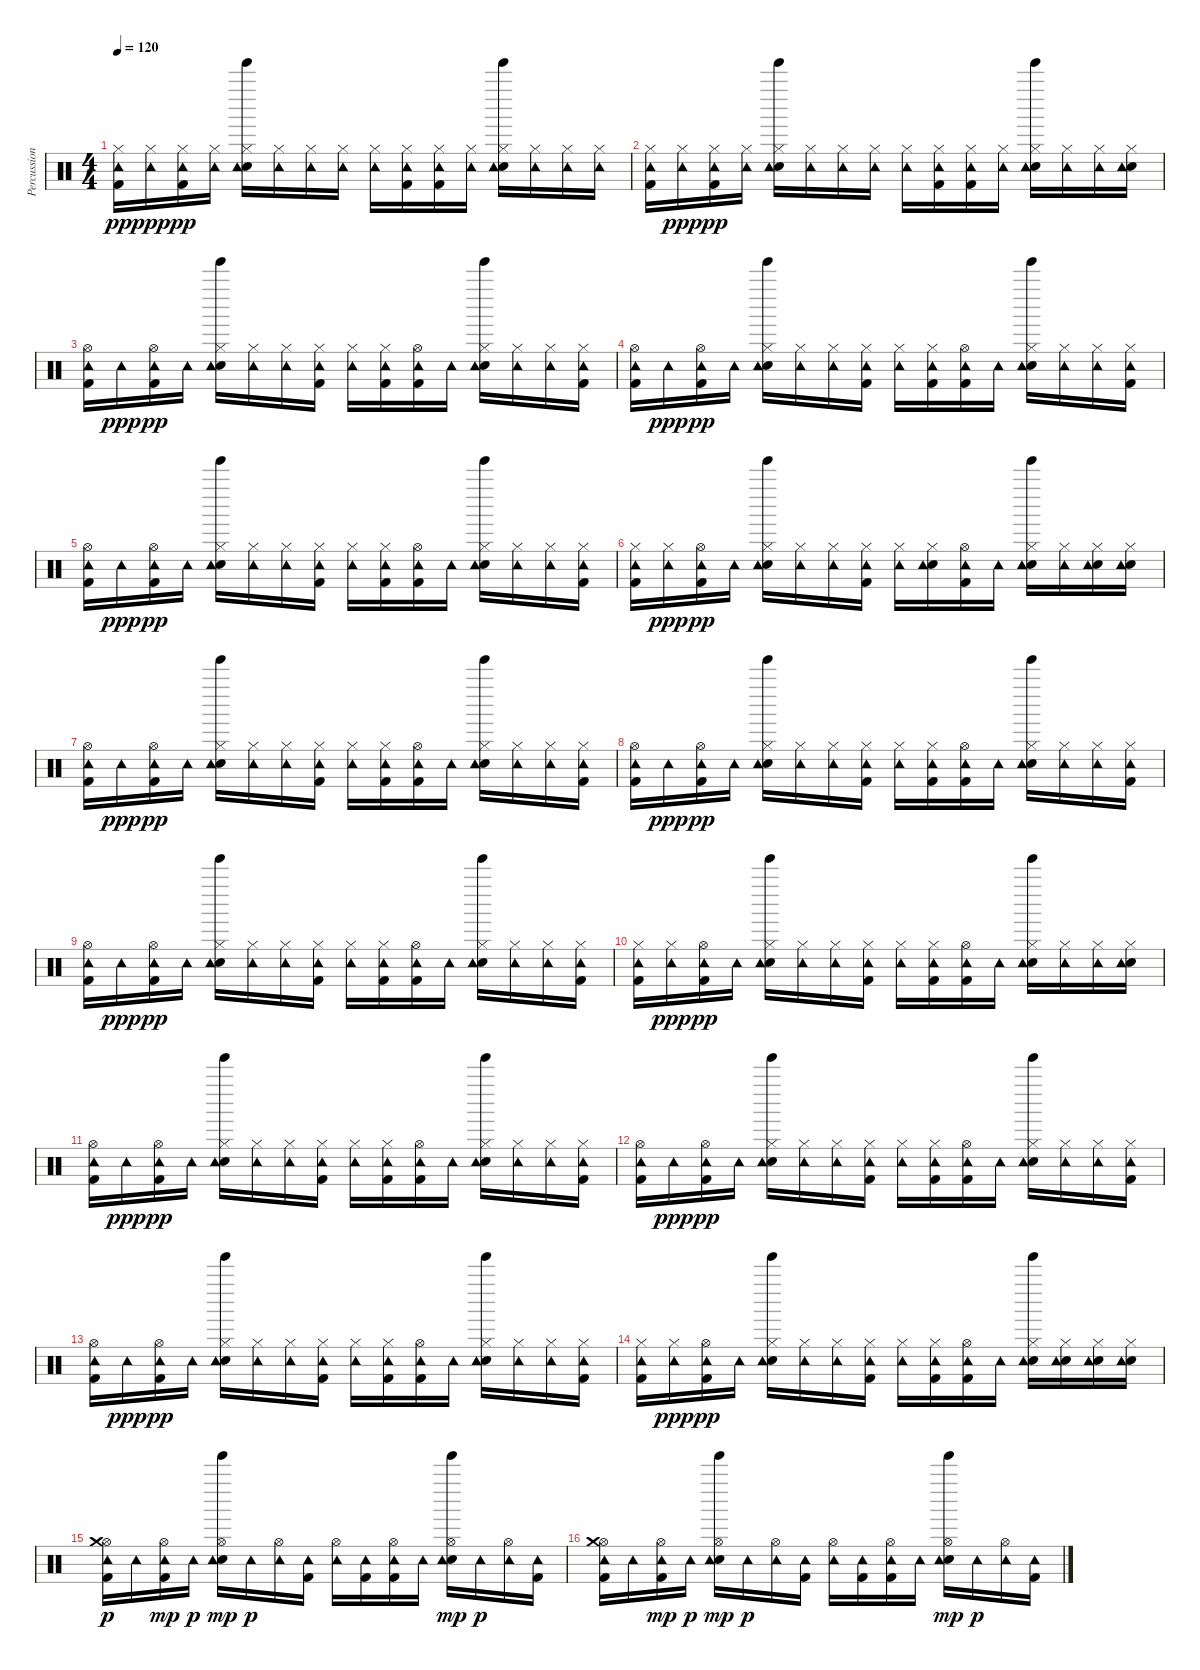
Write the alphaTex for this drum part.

\track ("Percussioni" "Percussion") {instrument percussion}
\staff {score}
\articulation defaults
\ts (4 4)
\tempo 120
\clef neutral
\ks c
("Kick (hit) 2" "Hi-Hat (closed)" "Tambourine (hit)").16{dy pp} ("Hi-Hat (closed)" "Tambourine (hit)").16{dy ppp} ("Kick (hit) 2" "Hi-Hat (closed)" "Tambourine (hit)").16{dy pp} ("Hi-Hat (closed)" "Tambourine (hit)").16 ("Electric Snare (hit)" "Hi-Hat (closed)" "Tambourine (hit)" "Tinkle Bell (hit)").16 ("Hi-Hat (closed)" "Tambourine (hit)").16 ("Hi-Hat (closed)" "Tambourine (hit)").16 ("Hi-Hat (closed)" "Tambourine (hit)").16 ("Hi-Hat (closed)" "Tambourine (hit)").16 ("Kick (hit) 2" "Hi-Hat (closed)" "Tambourine (hit)").16 ("Kick (hit) 2" "Hi-Hat (closed)" "Tambourine (hit)").16 ("Hi-Hat (closed)" "Tambourine (hit)").16 ("Electric Snare (hit)" "Hi-Hat (closed)" "Tambourine (hit)" "Tinkle Bell (hit)").16 ("Hi-Hat (closed)" "Tambourine (hit)").16 ("Hi-Hat (closed)" "Tambourine (hit)").16 ("Hi-Hat (closed)" "Tambourine (hit)").16 |
("Kick (hit) 2" "Hi-Hat (closed)" "Tambourine (hit)").16 ("Hi-Hat (closed)" "Tambourine (hit)").16{dy ppp} ("Kick (hit) 2" "Hi-Hat (closed)" "Tambourine (hit)").16{dy pp} ("Hi-Hat (closed)" "Tambourine (hit)").16 ("Electric Snare (hit)" "Hi-Hat (closed)" "Tambourine (hit)" "Tinkle Bell (hit)").16 ("Hi-Hat (closed)" "Tambourine (hit)").16 ("Hi-Hat (closed)" "Tambourine (hit)").16 ("Hi-Hat (closed)" "Tambourine (hit)").16 ("Hi-Hat (closed)" "Tambourine (hit)").16 ("Kick (hit) 2" "Hi-Hat (closed)" "Tambourine (hit)").16 ("Kick (hit) 2" "Hi-Hat (closed)" "Tambourine (hit)").16 ("Hi-Hat (closed)" "Tambourine (hit)").16 ("Electric Snare (hit)" "Hi-Hat (closed)" "Tambourine (hit)" "Tinkle Bell (hit)").16 ("Hi-Hat (closed)" "Tambourine (hit)").16 ("Hi-Hat (closed)" "Tambourine (hit)").16 ("Electric Snare (hit)" "Hi-Hat (closed)" "Tambourine (hit)").16 |
("Kick (hit) 2" "Hi-Hat (open)" "Tambourine (hit)").16 "Tambourine (hit)".16{dy ppp} ("Kick (hit) 2" "Hi-Hat (open)" "Tambourine (hit)").16{dy pp} "Tambourine (hit)".16 ("Electric Snare (hit)" "Hi-Hat (closed)" "Tambourine (hit)" "Tinkle Bell (hit)").16 ("Hi-Hat (closed)" "Tambourine (hit)").16 ("Hi-Hat (closed)" "Tambourine (hit)").16 ("Kick (hit) 2" "Hi-Hat (closed)" "Tambourine (hit)").16 ("Hi-Hat (closed)" "Tambourine (hit)").16 ("Kick (hit) 2" "Hi-Hat (closed)" "Tambourine (hit)").16 ("Kick (hit) 2" "Hi-Hat (open)" "Tambourine (hit)").16 "Tambourine (hit)".16 ("Electric Snare (hit)" "Hi-Hat (closed)" "Tambourine (hit)" "Tinkle Bell (hit)").16 ("Hi-Hat (closed)" "Tambourine (hit)").16 ("Hi-Hat (closed)" "Tambourine (hit)").16 ("Kick (hit) 2" "Hi-Hat (closed)" "Tambourine (hit)").16 |
("Kick (hit) 2" "Hi-Hat (open)" "Tambourine (hit)").16 "Tambourine (hit)".16{dy ppp} ("Kick (hit) 2" "Hi-Hat (open)" "Tambourine (hit)").16{dy pp} "Tambourine (hit)".16 ("Electric Snare (hit)" "Hi-Hat (closed)" "Tambourine (hit)" "Tinkle Bell (hit)").16 ("Hi-Hat (closed)" "Tambourine (hit)").16 ("Hi-Hat (closed)" "Tambourine (hit)").16 ("Kick (hit) 2" "Hi-Hat (closed)" "Tambourine (hit)").16 ("Hi-Hat (closed)" "Tambourine (hit)").16 ("Kick (hit) 2" "Hi-Hat (closed)" "Tambourine (hit)").16 ("Kick (hit) 2" "Hi-Hat (open)" "Tambourine (hit)").16 "Tambourine (hit)".16 ("Electric Snare (hit)" "Hi-Hat (closed)" "Tambourine (hit)" "Tinkle Bell (hit)").16 ("Hi-Hat (closed)" "Tambourine (hit)").16 ("Hi-Hat (closed)" "Tambourine (hit)").16 ("Kick (hit) 2" "Hi-Hat (closed)" "Tambourine (hit)").16 |
("Kick (hit) 2" "Hi-Hat (open)" "Tambourine (hit)").16 "Tambourine (hit)".16{dy ppp} ("Kick (hit) 2" "Hi-Hat (open)" "Tambourine (hit)").16{dy pp} "Tambourine (hit)".16 ("Electric Snare (hit)" "Hi-Hat (closed)" "Tambourine (hit)" "Tinkle Bell (hit)").16 ("Hi-Hat (closed)" "Tambourine (hit)").16 ("Hi-Hat (closed)" "Tambourine (hit)").16 ("Kick (hit) 2" "Hi-Hat (closed)" "Tambourine (hit)").16 ("Hi-Hat (closed)" "Tambourine (hit)").16 ("Kick (hit) 2" "Hi-Hat (closed)" "Tambourine (hit)").16 ("Kick (hit) 2" "Hi-Hat (open)" "Tambourine (hit)").16 "Tambourine (hit)".16 ("Electric Snare (hit)" "Hi-Hat (closed)" "Tambourine (hit)" "Tinkle Bell (hit)").16 ("Hi-Hat (closed)" "Tambourine (hit)").16 ("Hi-Hat (closed)" "Tambourine (hit)").16 ("Kick (hit) 2" "Hi-Hat (closed)" "Tambourine (hit)").16 |
("Kick (hit) 2" "Hi-Hat (closed)" "Tambourine (hit)").16 ("Hi-Hat (closed)" "Tambourine (hit)").16{dy ppp} ("Kick (hit) 2" "Hi-Hat (open)" "Tambourine (hit)").16{dy pp} "Tambourine (hit)".16 ("Electric Snare (hit)" "Hi-Hat (closed)" "Tambourine (hit)" "Tinkle Bell (hit)").16 ("Hi-Hat (closed)" "Tambourine (hit)").16 ("Hi-Hat (closed)" "Tambourine (hit)").16 ("Kick (hit) 2" "Hi-Hat (closed)" "Tambourine (hit)").16 ("Hi-Hat (closed)" "Tambourine (hit)").16 ("Electric Snare (hit)" "Hi-Hat (closed)" "Tambourine (hit)").16 ("Kick (hit) 2" "Hi-Hat (open)" "Tambourine (hit)").16 "Tambourine (hit)".16 ("Electric Snare (hit)" "Hi-Hat (closed)" "Tambourine (hit)" "Tinkle Bell (hit)").16 ("Hi-Hat (closed)" "Tambourine (hit)").16 ("Electric Snare (hit)" "Hi-Hat (closed)" "Tambourine (hit)").16 ("Electric Snare (hit)" "Hi-Hat (closed)" "Tambourine (hit)").16 |
("Kick (hit) 2" "Hi-Hat (open)" "Tambourine (hit)").16 "Tambourine (hit)".16{dy ppp} ("Kick (hit) 2" "Hi-Hat (open)" "Tambourine (hit)").16{dy pp} "Tambourine (hit)".16 ("Electric Snare (hit)" "Hi-Hat (closed)" "Tambourine (hit)" "Tinkle Bell (hit)").16 ("Hi-Hat (closed)" "Tambourine (hit)").16 ("Hi-Hat (closed)" "Tambourine (hit)").16 ("Kick (hit) 2" "Hi-Hat (closed)" "Tambourine (hit)").16 ("Hi-Hat (closed)" "Tambourine (hit)").16 ("Kick (hit) 2" "Hi-Hat (closed)" "Tambourine (hit)").16 ("Kick (hit) 2" "Hi-Hat (open)" "Tambourine (hit)").16 "Tambourine (hit)".16 ("Electric Snare (hit)" "Hi-Hat (closed)" "Tambourine (hit)" "Tinkle Bell (hit)").16 ("Hi-Hat (closed)" "Tambourine (hit)").16 ("Hi-Hat (closed)" "Tambourine (hit)").16 ("Kick (hit) 2" "Hi-Hat (closed)" "Tambourine (hit)").16 |
("Kick (hit) 2" "Hi-Hat (open)" "Tambourine (hit)").16 "Tambourine (hit)".16{dy ppp} ("Kick (hit) 2" "Hi-Hat (open)" "Tambourine (hit)").16{dy pp} "Tambourine (hit)".16 ("Electric Snare (hit)" "Hi-Hat (closed)" "Tambourine (hit)" "Tinkle Bell (hit)").16 ("Hi-Hat (closed)" "Tambourine (hit)").16 ("Hi-Hat (closed)" "Tambourine (hit)").16 ("Kick (hit) 2" "Hi-Hat (closed)" "Tambourine (hit)").16 ("Hi-Hat (closed)" "Tambourine (hit)").16 ("Kick (hit) 2" "Hi-Hat (closed)" "Tambourine (hit)").16 ("Kick (hit) 2" "Hi-Hat (open)" "Tambourine (hit)").16 "Tambourine (hit)".16 ("Electric Snare (hit)" "Hi-Hat (closed)" "Tambourine (hit)" "Tinkle Bell (hit)").16 ("Hi-Hat (closed)" "Tambourine (hit)").16 ("Hi-Hat (closed)" "Tambourine (hit)").16 ("Kick (hit) 2" "Hi-Hat (closed)" "Tambourine (hit)").16 |
("Kick (hit) 2" "Hi-Hat (open)" "Tambourine (hit)").16 "Tambourine (hit)".16{dy ppp} ("Kick (hit) 2" "Hi-Hat (open)" "Tambourine (hit)").16{dy pp} "Tambourine (hit)".16 ("Electric Snare (hit)" "Hi-Hat (closed)" "Tambourine (hit)" "Tinkle Bell (hit)").16 ("Hi-Hat (closed)" "Tambourine (hit)").16 ("Hi-Hat (closed)" "Tambourine (hit)").16 ("Kick (hit) 2" "Hi-Hat (closed)" "Tambourine (hit)").16 ("Hi-Hat (closed)" "Tambourine (hit)").16 ("Kick (hit) 2" "Hi-Hat (closed)" "Tambourine (hit)").16 ("Kick (hit) 2" "Hi-Hat (open)" "Tambourine (hit)").16 "Tambourine (hit)".16 ("Electric Snare (hit)" "Hi-Hat (closed)" "Tambourine (hit)" "Tinkle Bell (hit)").16 ("Hi-Hat (closed)" "Tambourine (hit)").16 ("Hi-Hat (closed)" "Tambourine (hit)").16 ("Kick (hit) 2" "Hi-Hat (closed)" "Tambourine (hit)").16 |
("Kick (hit) 2" "Hi-Hat (closed)" "Tambourine (hit)").16 ("Hi-Hat (closed)" "Tambourine (hit)").16{dy ppp} ("Kick (hit) 2" "Hi-Hat (open)" "Tambourine (hit)").16{dy pp} "Tambourine (hit)".16 ("Electric Snare (hit)" "Hi-Hat (closed)" "Tambourine (hit)" "Tinkle Bell (hit)").16 ("Hi-Hat (closed)" "Tambourine (hit)").16 ("Hi-Hat (closed)" "Tambourine (hit)").16 ("Kick (hit) 2" "Hi-Hat (closed)" "Tambourine (hit)").16 ("Hi-Hat (closed)" "Tambourine (hit)").16 ("Kick (hit) 2" "Hi-Hat (closed)" "Tambourine (hit)").16 ("Kick (hit) 2" "Hi-Hat (open)" "Tambourine (hit)").16 "Tambourine (hit)".16 ("Electric Snare (hit)" "Hi-Hat (closed)" "Tambourine (hit)" "Tinkle Bell (hit)").16 ("Hi-Hat (closed)" "Tambourine (hit)").16 ("Hi-Hat (closed)" "Tambourine (hit)").16 ("Electric Snare (hit)" "Hi-Hat (closed)" "Tambourine (hit)").16 |
("Kick (hit) 2" "Hi-Hat (open)" "Tambourine (hit)").16 "Tambourine (hit)".16{dy ppp} ("Kick (hit) 2" "Hi-Hat (open)" "Tambourine (hit)").16{dy pp} "Tambourine (hit)".16 ("Electric Snare (hit)" "Hi-Hat (closed)" "Tambourine (hit)" "Tinkle Bell (hit)").16 ("Hi-Hat (closed)" "Tambourine (hit)").16 ("Hi-Hat (closed)" "Tambourine (hit)").16 ("Kick (hit) 2" "Hi-Hat (closed)" "Tambourine (hit)").16 ("Hi-Hat (closed)" "Tambourine (hit)").16 ("Kick (hit) 2" "Hi-Hat (closed)" "Tambourine (hit)").16 ("Kick (hit) 2" "Hi-Hat (open)" "Tambourine (hit)").16 "Tambourine (hit)".16 ("Electric Snare (hit)" "Hi-Hat (closed)" "Tambourine (hit)" "Tinkle Bell (hit)").16 ("Hi-Hat (closed)" "Tambourine (hit)").16 ("Hi-Hat (closed)" "Tambourine (hit)").16 ("Kick (hit) 2" "Hi-Hat (closed)" "Tambourine (hit)").16 |
("Kick (hit) 2" "Hi-Hat (open)" "Tambourine (hit)").16 "Tambourine (hit)".16{dy ppp} ("Kick (hit) 2" "Hi-Hat (open)" "Tambourine (hit)").16{dy pp} "Tambourine (hit)".16 ("Electric Snare (hit)" "Hi-Hat (closed)" "Tambourine (hit)" "Tinkle Bell (hit)").16 ("Hi-Hat (closed)" "Tambourine (hit)").16 ("Hi-Hat (closed)" "Tambourine (hit)").16 ("Kick (hit) 2" "Hi-Hat (closed)" "Tambourine (hit)").16 ("Hi-Hat (closed)" "Tambourine (hit)").16 ("Kick (hit) 2" "Hi-Hat (closed)" "Tambourine (hit)").16 ("Kick (hit) 2" "Hi-Hat (open)" "Tambourine (hit)").16 "Tambourine (hit)".16 ("Electric Snare (hit)" "Hi-Hat (closed)" "Tambourine (hit)" "Tinkle Bell (hit)").16 ("Hi-Hat (closed)" "Tambourine (hit)").16 ("Hi-Hat (closed)" "Tambourine (hit)").16 ("Kick (hit) 2" "Hi-Hat (closed)" "Tambourine (hit)").16 |
("Kick (hit) 2" "Hi-Hat (open)" "Tambourine (hit)").16 "Tambourine (hit)".16{dy ppp} ("Kick (hit) 2" "Hi-Hat (open)" "Tambourine (hit)").16{dy pp} "Tambourine (hit)".16 ("Electric Snare (hit)" "Hi-Hat (closed)" "Tambourine (hit)" "Tinkle Bell (hit)").16 ("Hi-Hat (closed)" "Tambourine (hit)").16 ("Hi-Hat (closed)" "Tambourine (hit)").16 ("Kick (hit) 2" "Hi-Hat (closed)" "Tambourine (hit)").16 ("Hi-Hat (closed)" "Tambourine (hit)").16 ("Kick (hit) 2" "Hi-Hat (closed)" "Tambourine (hit)").16 ("Kick (hit) 2" "Hi-Hat (open)" "Tambourine (hit)").16 "Tambourine (hit)".16 ("Electric Snare (hit)" "Hi-Hat (closed)" "Tambourine (hit)" "Tinkle Bell (hit)").16 ("Hi-Hat (closed)" "Tambourine (hit)").16 ("Hi-Hat (closed)" "Tambourine (hit)").16 ("Kick (hit) 2" "Hi-Hat (closed)" "Tambourine (hit)").16 |
("Kick (hit) 2" "Hi-Hat (closed)" "Tambourine (hit)").16 ("Hi-Hat (closed)" "Tambourine (hit)").16{dy ppp} ("Kick (hit) 2" "Hi-Hat (open)" "Tambourine (hit)").16{dy pp} "Tambourine (hit)".16 ("Electric Snare (hit)" "Hi-Hat (closed)" "Tambourine (hit)" "Tinkle Bell (hit)").16 ("Hi-Hat (closed)" "Tambourine (hit)").16 ("Hi-Hat (closed)" "Tambourine (hit)").16 ("Kick (hit) 2" "Hi-Hat (closed)" "Tambourine (hit)").16 ("Hi-Hat (closed)" "Tambourine (hit)").16 ("Kick (hit) 2" "Hi-Hat (closed)" "Tambourine (hit)").16 ("Kick (hit) 2" "Hi-Hat (open)" "Tambourine (hit)").16 "Tambourine (hit)".16 ("Electric Snare (hit)" "Hi-Hat (closed)" "Tambourine (hit)" "Tinkle Bell (hit)").16 ("Electric Snare (hit)" "Hi-Hat (closed)" "Tambourine (hit)").16 ("Electric Snare (hit)" "Hi-Hat (closed)" "Tambourine (hit)").16 ("Electric Snare (hit)" "Hi-Hat (closed)" "Tambourine (hit)").16 |
("Kick (hit) 2" "Hi-Hat (open)" "Crash medium (hit)" "Tambourine (hit)").16{dy p} "Tambourine (hit)".16 ("Kick (hit) 2" "Hi-Hat (open)" "Tambourine (hit)").16{dy mp} "Tambourine (hit)".16{dy p} ("Electric Snare (hit)" "Hi-Hat (open)" "Tambourine (hit)" "Tinkle Bell (hit)").16{dy mp} "Tambourine (hit)".16{dy p} ("Hi-Hat (open)" "Tambourine (hit)").16 ("Kick (hit) 2" "Tambourine (hit)").16 ("Hi-Hat (open)" "Tambourine (hit)").16 ("Kick (hit) 2" "Tambourine (hit)").16 ("Kick (hit) 2" "Hi-Hat (open)" "Tambourine (hit)").16 "Tambourine (hit)".16 ("Electric Snare (hit)" "Hi-Hat (open)" "Tambourine (hit)" "Tinkle Bell (hit)").16{dy mp} "Tambourine (hit)".16{dy p} ("Hi-Hat (open)" "Tambourine (hit)").16 ("Kick (hit) 2" "Tambourine (hit)").16 |
("Kick (hit) 2" "Hi-Hat (open)" "Crash medium (hit)" "Tambourine (hit)").16 "Tambourine (hit)".16 ("Kick (hit) 2" "Hi-Hat (open)" "Tambourine (hit)").16{dy mp} "Tambourine (hit)".16{dy p} ("Electric Snare (hit)" "Hi-Hat (open)" "Tambourine (hit)" "Tinkle Bell (hit)").16{dy mp} "Tambourine (hit)".16{dy p} ("Hi-Hat (open)" "Tambourine (hit)").16 ("Kick (hit) 2" "Tambourine (hit)").16 ("Hi-Hat (open)" "Tambourine (hit)").16 ("Kick (hit) 2" "Tambourine (hit)").16 ("Kick (hit) 2" "Hi-Hat (open)" "Tambourine (hit)").16 "Tambourine (hit)".16 ("Electric Snare (hit)" "Hi-Hat (open)" "Tambourine (hit)" "Tinkle Bell (hit)").16{dy mp} "Tambourine (hit)".16{dy p} ("Hi-Hat (open)" "Tambourine (hit)").16 ("Kick (hit) 2" "Tambourine (hit)").16
